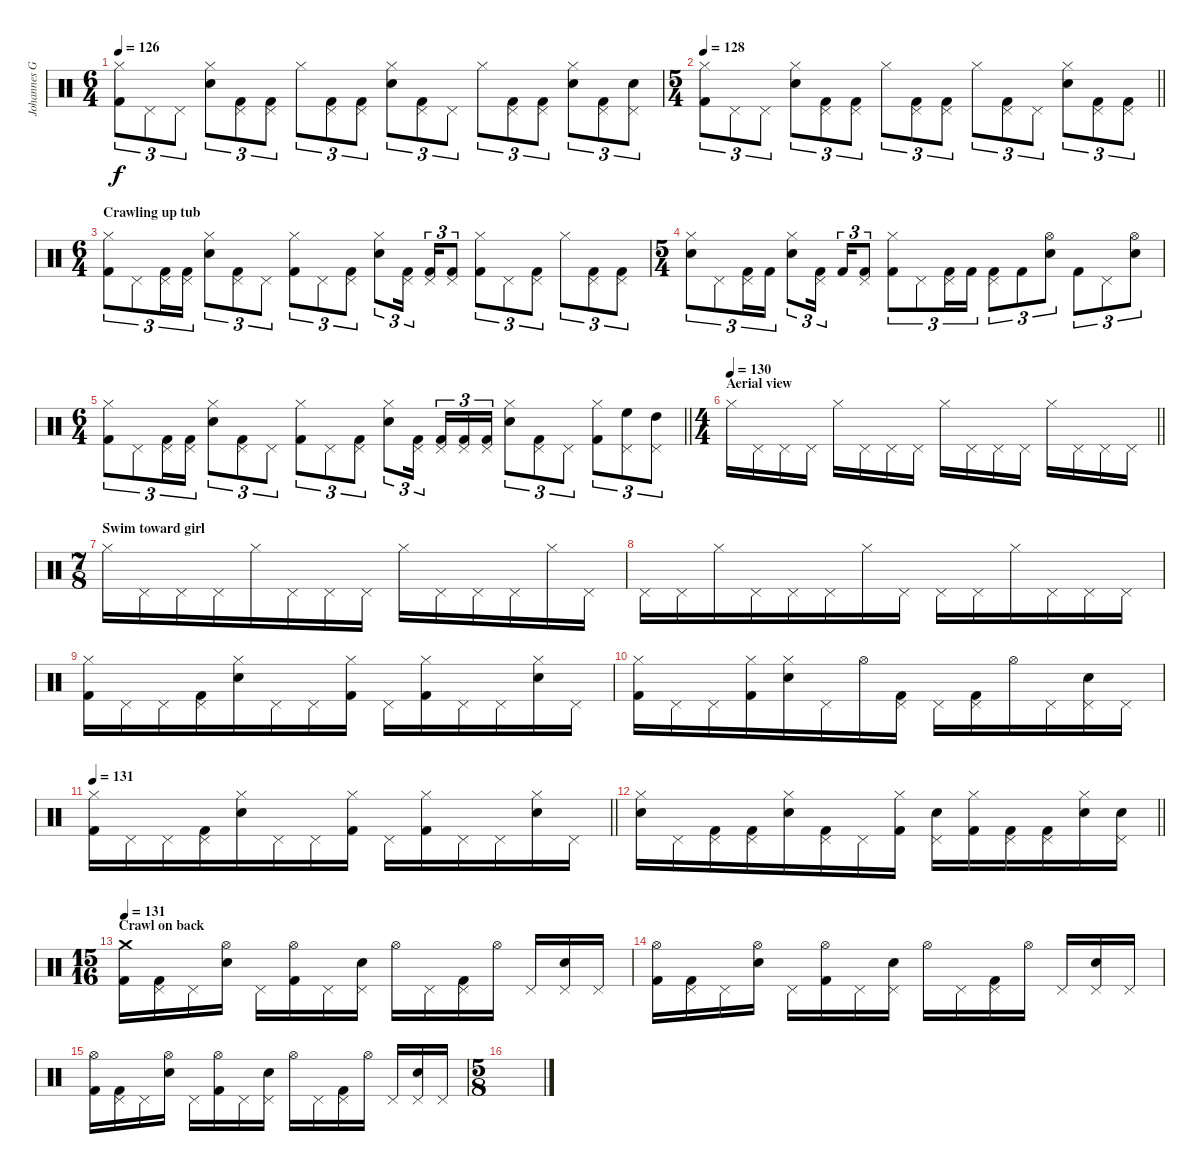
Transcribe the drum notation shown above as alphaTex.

\track ("Johannes Grossmann" "Johannes G") {instrument percussion}
\staff {score}
\articulation defaults
\ts (6 4)
\tempo 126
\clef neutral
\ks c
("Hi-Hat (closed)" "Kick (hit) 2").8{tu (3 2) dy f} "Pedal Hi-Hat (hit)".8{tu (3 2)} "Pedal Hi-Hat (hit)".8{tu (3 2)} ("Hi-Hat (closed)" "Snare (hit) 2").8{tu (3 2)} ("Pedal Hi-Hat (hit)" "Kick (hit) 2").8{tu (3 2)} ("Pedal Hi-Hat (hit)" "Kick (hit) 2").8{tu (3 2)} "Hi-Hat (closed)".8{tu (3 2)} ("Pedal Hi-Hat (hit)" "Kick (hit) 2").8{tu (3 2)} ("Pedal Hi-Hat (hit)" "Kick (hit) 2").8{tu (3 2)} ("Hi-Hat (closed)" "Snare (hit) 2").8{tu (3 2)} ("Pedal Hi-Hat (hit)" "Kick (hit) 2").8{tu (3 2)} "Pedal Hi-Hat (hit)".8{tu (3 2)} "Hi-Hat (closed)".8{tu (3 2)} ("Pedal Hi-Hat (hit)" "Kick (hit) 2").8{tu (3 2)} ("Pedal Hi-Hat (hit)" "Kick (hit) 2").8{tu (3 2)} ("Hi-Hat (closed)" "Snare (hit) 2").8{tu (3 2)} ("Pedal Hi-Hat (hit)" "Kick (hit) 2").8{tu (3 2)} ("Pedal Hi-Hat (hit)" "Snare (hit) 2").8{tu (3 2)} |
\ts (5 4)
\tempo 128
\barLineRight lightlight
("Hi-Hat (closed)" "Kick (hit) 2").8{tu (3 2)} "Pedal Hi-Hat (hit)".8{tu (3 2)} "Pedal Hi-Hat (hit)".8{tu (3 2)} ("Hi-Hat (closed)" "Snare (hit) 2").8{tu (3 2)} ("Pedal Hi-Hat (hit)" "Kick (hit) 2").8{tu (3 2)} ("Pedal Hi-Hat (hit)" "Kick (hit) 2").8{tu (3 2)} "Hi-Hat (closed)".8{tu (3 2)} ("Pedal Hi-Hat (hit)" "Kick (hit) 2").8{tu (3 2)} ("Pedal Hi-Hat (hit)" "Kick (hit) 2").8{tu (3 2)} "Hi-Hat (closed)".8{tu (3 2)} ("Pedal Hi-Hat (hit)" "Kick (hit) 2").8{tu (3 2)} "Pedal Hi-Hat (hit)".8{tu (3 2)} ("Hi-Hat (closed)" "Snare (hit) 2").8{tu (3 2)} ("Pedal Hi-Hat (hit)" "Kick (hit) 2").8{tu (3 2)} ("Pedal Hi-Hat (hit)" "Kick (hit) 2").8{tu (3 2)} |
\ts (6 4)
\section ("" "Crawling up tub")
("Hi-Hat (closed)" "Kick (hit) 2").8{tu (3 2)} "Pedal Hi-Hat (hit)".8{tu (3 2)} ("Pedal Hi-Hat (hit)" "Kick (hit) 2").16{tu (3 2)} ("Pedal Hi-Hat (hit)" "Kick (hit) 2").16{tu (3 2)} ("Hi-Hat (closed)" "Snare (hit) 2").8{tu (3 2)} ("Pedal Hi-Hat (hit)" "Kick (hit) 2").8{tu (3 2)} "Pedal Hi-Hat (hit)".8{tu (3 2)} ("Hi-Hat (closed)" "Kick (hit) 2").8{tu (3 2)} "Pedal Hi-Hat (hit)".8{tu (3 2)} ("Pedal Hi-Hat (hit)" "Kick (hit) 2").8{tu (3 2)} ("Hi-Hat (closed)" "Snare (hit) 2").8{tu (3 2)} ("Pedal Hi-Hat (hit)" "Kick (hit) 2").16{tu (3 2) beam splitsecondary} ("Pedal Hi-Hat (hit)" "Kick (hit) 2").16{tu (3 2)} ("Pedal Hi-Hat (hit)" "Kick (hit) 2").8{tu (3 2)} ("Hi-Hat (closed)" "Kick (hit) 2").8{tu (3 2)} "Pedal Hi-Hat (hit)".8{tu (3 2)} ("Pedal Hi-Hat (hit)" "Kick (hit) 2").8{tu (3 2)} "Hi-Hat (closed)".8{tu (3 2)} ("Pedal Hi-Hat (hit)" "Kick (hit) 2").8{tu (3 2)} ("Pedal Hi-Hat (hit)" "Kick (hit) 2").8{tu (3 2)} |
\ts (5 4)
("Hi-Hat (closed)" "Snare (hit) 2").8{tu (3 2)} "Pedal Hi-Hat (hit)".8{tu (3 2)} ("Pedal Hi-Hat (hit)" "Kick (hit) 2").16{tu (3 2)} "Kick (hit) 2".16{tu (3 2)} ("Hi-Hat (closed)" "Snare (hit) 2").8{tu (3 2)} ("Pedal Hi-Hat (hit)" "Kick (hit) 2").16{tu (3 2) beam splitsecondary} "Kick (hit) 2".16{tu (3 2)} ("Pedal Hi-Hat (hit)" "Kick (hit) 2").8{tu (3 2)} ("Hi-Hat (closed)" "Kick (hit) 2").8{tu (3 2)} "Pedal Hi-Hat (hit)".8{tu (3 2)} ("Pedal Hi-Hat (hit)" "Kick (hit) 2").16{tu (3 2)} "Kick (hit) 2".16{tu (3 2)} ("Pedal Hi-Hat (hit)" "Kick (hit) 2").8{tu (3 2)} "Kick (hit) 2".8{tu (3 2)} ("Hi-Hat (open)" "Snare (hit) 2").8{tu (3 2)} "Kick (hit) 2".8{tu (3 2)} "Pedal Hi-Hat (hit)".8{tu (3 2)} ("Hi-Hat (open)" "Snare (hit) 2").8{tu (3 2)} |
\ts (6 4)
\barLineRight lightlight
("Hi-Hat (closed)" "Kick (hit) 2").8{tu (3 2)} "Pedal Hi-Hat (hit)".8{tu (3 2)} ("Pedal Hi-Hat (hit)" "Kick (hit) 2").16{tu (3 2)} ("Pedal Hi-Hat (hit)" "Kick (hit) 2").16{tu (3 2)} ("Hi-Hat (closed)" "Snare (hit) 2").8{tu (3 2)} ("Pedal Hi-Hat (hit)" "Kick (hit) 2").8{tu (3 2)} "Pedal Hi-Hat (hit)".8{tu (3 2)} ("Hi-Hat (closed)" "Kick (hit) 2").8{tu (3 2)} "Pedal Hi-Hat (hit)".8{tu (3 2)} ("Pedal Hi-Hat (hit)" "Kick (hit) 2").8{tu (3 2)} ("Hi-Hat (closed)" "Snare (hit) 2").8{tu (3 2)} ("Pedal Hi-Hat (hit)" "Kick (hit) 2").16{tu (3 2) beam splitsecondary} ("Pedal Hi-Hat (hit)" "Kick (hit) 2").16{tu (3 2)} ("Pedal Hi-Hat (hit)" "Kick (hit) 2").16{tu (3 2)} ("Pedal Hi-Hat (hit)" "Kick (hit) 2").16{tu (3 2)} ("Hi-Hat (closed)" "Snare (hit) 2").8{tu (3 2)} ("Pedal Hi-Hat (hit)" "Kick (hit) 2").8{tu (3 2)} "Pedal Hi-Hat (hit)".8{tu (3 2)} ("Hi-Hat (closed)" "Kick (hit) 2").8{tu (3 2)} ("Pedal Hi-Hat (hit)" "High Floor Tom (hit)").8{tu (3 2)} ("Pedal Hi-Hat (hit)" "High Tom (hit)").8{tu (3 2)} |
\ts (4 4)
\section ("" "Aerial view")
\tempo 130
\barLineRight lightlight "Hi-Hat (closed)".16 "Pedal Hi-Hat (hit)".16 "Pedal Hi-Hat (hit)".16 "Pedal Hi-Hat (hit)".16 "Hi-Hat (closed)".16 "Pedal Hi-Hat (hit)".16 "Pedal Hi-Hat (hit)".16 "Pedal Hi-Hat (hit)".16 "Hi-Hat (closed)".16 "Pedal Hi-Hat (hit)".16 "Pedal Hi-Hat (hit)".16 "Pedal Hi-Hat (hit)".16 "Hi-Hat (closed)".16 "Pedal Hi-Hat (hit)".16 "Pedal Hi-Hat (hit)".16 "Pedal Hi-Hat (hit)".16
|
\ts (7 8)
\section ("" "Swim toward girl")
"Hi-Hat (closed)".16 "Pedal Hi-Hat (hit)".16 "Pedal Hi-Hat (hit)".16 "Pedal Hi-Hat (hit)".16 "Hi-Hat (closed)".16 "Pedal Hi-Hat (hit)".16 "Pedal Hi-Hat (hit)".16 "Pedal Hi-Hat (hit)".16 "Hi-Hat (closed)".16 "Pedal Hi-Hat (hit)".16 "Pedal Hi-Hat (hit)".16 "Pedal Hi-Hat (hit)".16 "Hi-Hat (closed)".16 "Pedal Hi-Hat (hit)".16 |
"Pedal Hi-Hat (hit)".16 "Pedal Hi-Hat (hit)".16 "Hi-Hat (closed)".16 "Pedal Hi-Hat (hit)".16 "Pedal Hi-Hat (hit)".16 "Pedal Hi-Hat (hit)".16 "Hi-Hat (closed)".16 "Pedal Hi-Hat (hit)".16 "Pedal Hi-Hat (hit)".16 "Pedal Hi-Hat (hit)".16 "Hi-Hat (closed)".16 "Pedal Hi-Hat (hit)".16 "Pedal Hi-Hat (hit)".16 "Pedal Hi-Hat (hit)".16 |
("Hi-Hat (closed)" "Kick (hit) 2").16 "Pedal Hi-Hat (hit)".16 "Pedal Hi-Hat (hit)".16 ("Pedal Hi-Hat (hit)" "Kick (hit) 2").16 ("Hi-Hat (closed)" "Snare (hit) 2").16 "Pedal Hi-Hat (hit)".16 "Pedal Hi-Hat (hit)".16 ("Hi-Hat (closed)" "Kick (hit) 2").16 "Pedal Hi-Hat (hit)".16 ("Hi-Hat (closed)" "Kick (hit) 2").16 "Pedal Hi-Hat (hit)".16 "Pedal Hi-Hat (hit)".16 ("Hi-Hat (closed)" "Snare (hit) 2").16 "Pedal Hi-Hat (hit)".16 |
("Hi-Hat (closed)" "Kick (hit) 2").16 "Pedal Hi-Hat (hit)".16 "Pedal Hi-Hat (hit)".16 ("Hi-Hat (closed)" "Kick (hit) 2").16 ("Hi-Hat (closed)" "Snare (hit) 2").16 "Pedal Hi-Hat (hit)".16 "Hi-Hat (open)".16 ("Pedal Hi-Hat (hit)" "Kick (hit) 2").16 "Pedal Hi-Hat (hit)".16 ("Pedal Hi-Hat (hit)" "Kick (hit) 2").16 "Hi-Hat (open)".16 "Pedal Hi-Hat (hit)".16 ("Pedal Hi-Hat (hit)" "Snare (hit) 2").16 "Pedal Hi-Hat (hit)".16 |
\tempo 131
\barLineRight lightlight
("Hi-Hat (closed)" "Kick (hit) 2").16 "Pedal Hi-Hat (hit)".16 "Pedal Hi-Hat (hit)".16 ("Pedal Hi-Hat (hit)" "Kick (hit) 2").16 ("Hi-Hat (closed)" "Snare (hit) 2").16 "Pedal Hi-Hat (hit)".16 "Pedal Hi-Hat (hit)".16 ("Hi-Hat (closed)" "Kick (hit) 2").16 "Pedal Hi-Hat (hit)".16 ("Hi-Hat (closed)" "Kick (hit) 2").16 "Pedal Hi-Hat (hit)".16 "Pedal Hi-Hat (hit)".16 ("Hi-Hat (closed)" "Snare (hit) 2").16 "Pedal Hi-Hat (hit)".16 |
\barLineRight lightlight
("Hi-Hat (closed)" "Snare (hit) 2").16 "Pedal Hi-Hat (hit)".16 ("Pedal Hi-Hat (hit)" "Kick (hit) 2").16 ("Pedal Hi-Hat (hit)" "Kick (hit) 2").16 ("Hi-Hat (closed)" "Snare (hit) 2").16 ("Pedal Hi-Hat (hit)" "Kick (hit) 2").16 "Pedal Hi-Hat (hit)".16 ("Hi-Hat (closed)" "Kick (hit) 2").16 ("Pedal Hi-Hat (hit)" "Snare (hit) 2").16 ("Hi-Hat (closed)" "Kick (hit) 2").16 ("Pedal Hi-Hat (hit)" "Kick (hit) 2").16 ("Pedal Hi-Hat (hit)" "Kick (hit) 2").16 ("Hi-Hat (closed)" "Snare (hit) 2").16 ("Pedal Hi-Hat (hit)" "Snare (hit) 2").16 |
\ts (15 16)
\section ("" "Crawl on back")
\tempo 131
("Crash medium (hit)" "Kick (hit) 2").16 ("Pedal Hi-Hat (hit)" "Kick (hit) 2").16 "Pedal Hi-Hat (hit)".16 ("Hi-Hat (open)" "Snare (hit) 2").16 "Pedal Hi-Hat (hit)".16 ("Hi-Hat (open)" "Kick (hit) 2").16 "Pedal Hi-Hat (hit)".16 ("Pedal Hi-Hat (hit)" "Snare (hit) 2").16 "Hi-Hat (open)".16 "Pedal Hi-Hat (hit)".16 ("Pedal Hi-Hat (hit)" "Kick (hit) 2").16 "Hi-Hat (open)".16 "Pedal Hi-Hat (hit)".16 ("Pedal Hi-Hat (hit)" "Snare (hit) 2").16 "Pedal Hi-Hat (hit)".16 |
("Hi-Hat (open)" "Kick (hit) 2").16 ("Pedal Hi-Hat (hit)" "Kick (hit) 2").16 "Pedal Hi-Hat (hit)".16 ("Hi-Hat (open)" "Snare (hit) 2").16 "Pedal Hi-Hat (hit)".16 ("Hi-Hat (open)" "Kick (hit) 2").16 "Pedal Hi-Hat (hit)".16 ("Pedal Hi-Hat (hit)" "Snare (hit) 2").16 "Hi-Hat (open)".16 "Pedal Hi-Hat (hit)".16 ("Pedal Hi-Hat (hit)" "Kick (hit) 2").16 "Hi-Hat (open)".16 "Pedal Hi-Hat (hit)".16 ("Pedal Hi-Hat (hit)" "Snare (hit) 2").16 "Pedal Hi-Hat (hit)".16 |
("Hi-Hat (open)" "Kick (hit) 2").16 ("Pedal Hi-Hat (hit)" "Kick (hit) 2").16 "Pedal Hi-Hat (hit)".16 ("Hi-Hat (open)" "Snare (hit) 2").16 "Pedal Hi-Hat (hit)".16 ("Hi-Hat (open)" "Kick (hit) 2").16 "Pedal Hi-Hat (hit)".16 ("Pedal Hi-Hat (hit)" "Snare (hit) 2").16 "Hi-Hat (open)".16 "Pedal Hi-Hat (hit)".16 ("Pedal Hi-Hat (hit)" "Kick (hit) 2").16 "Hi-Hat (open)".16 "Pedal Hi-Hat (hit)".16 ("Pedal Hi-Hat (hit)" "Snare (hit) 2").16 "Pedal Hi-Hat (hit)".16 |
\ts (5 8)
